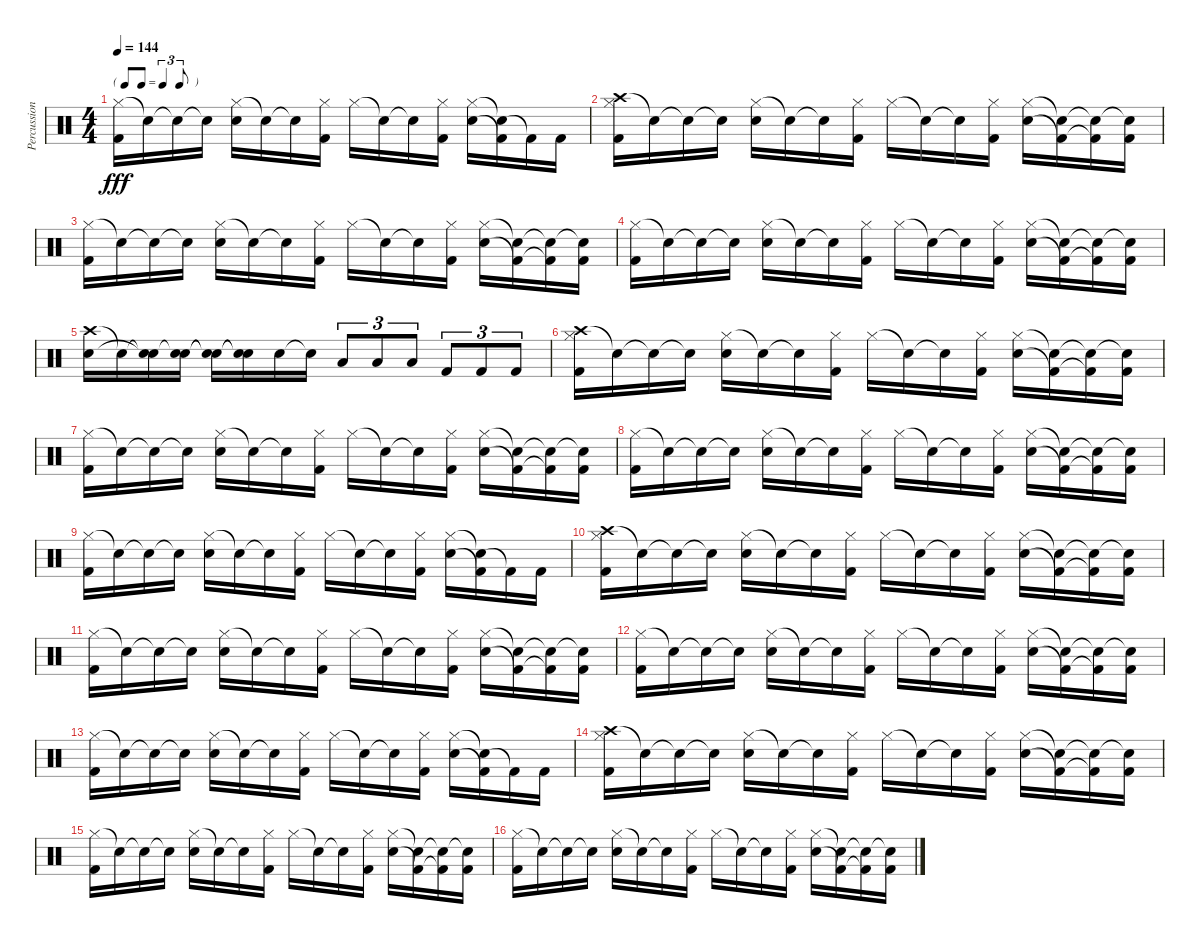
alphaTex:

\track ("Percussion" "Percussion") {instrument percussion}
\staff {score}
\articulation defaults
\ts (4 4)
\tf triplet8th
\tempo 144
\clef neutral
\ks c
("Hi-Hat (closed)" "Kick (hit) 2").16{dy fff} "Snare (hit)"{t}.16 "Snare (hit)"{t}.16 "Snare (hit)"{t}.16 ("Hi-Hat (closed)" "Electric Snare (hit)").16 "Snare (hit)"{t}.16 "Snare (hit)"{t}.16 ("Hi-Hat (closed)" "Kick (hit) 2").16 "Hi-Hat (closed)".16 "Snare (hit)"{t}.16 "Snare (hit)"{t}.16 ("Hi-Hat (closed)" "Kick (hit) 2").16 ("Hi-Hat (closed)" "Electric Snare (hit)").16 ("Snare (hit)"{t} "Kick (hit) 2"{t}).16 "Kick (hit) 2"{t}.16 "Kick (hit) 2".16 |
("Crash high (hit)" "Hi-Hat (closed)" "Kick (hit) 2").16 "Snare (hit)"{t}.16 "Snare (hit)"{t}.16 "Snare (hit)"{t}.16 ("Hi-Hat (closed)" "Electric Snare (hit)").16 "Snare (hit)"{t}.16 "Snare (hit)"{t}.16 ("Hi-Hat (closed)" "Kick (hit) 2").16 "Hi-Hat (closed)".16 "Snare (hit)"{t}.16 "Snare (hit)"{t}.16 ("Hi-Hat (closed)" "Kick (hit) 2").16 ("Hi-Hat (closed)" "Electric Snare (hit)").16 ("Snare (hit)"{t} "Kick (hit) 2"{t}).16 ("Snare (hit)"{t} "Kick (hit) 2"{t}).16 ("Snare (hit)"{t} "Kick (hit) 2").16 |
("Hi-Hat (closed)" "Kick (hit) 2").16 "Snare (hit)"{t}.16 "Snare (hit)"{t}.16 "Snare (hit)"{t}.16 ("Hi-Hat (closed)" "Electric Snare (hit)").16 "Snare (hit)"{t}.16 "Snare (hit)"{t}.16 ("Hi-Hat (closed)" "Kick (hit) 2").16 "Hi-Hat (closed)".16 "Snare (hit)"{t}.16 "Snare (hit)"{t}.16 ("Hi-Hat (closed)" "Kick (hit) 2").16 ("Hi-Hat (closed)" "Electric Snare (hit)").16 ("Snare (hit)"{t} "Kick (hit) 2"{t}).16 ("Snare (hit)"{t} "Kick (hit) 2"{t}).16 ("Snare (hit)"{t} "Kick (hit) 2").16 |
("Hi-Hat (closed)" "Kick (hit) 2").16 "Snare (hit)"{t}.16 "Snare (hit)"{t}.16 "Snare (hit)"{t}.16 ("Hi-Hat (closed)" "Electric Snare (hit)").16 "Snare (hit)"{t}.16 "Snare (hit)"{t}.16 ("Hi-Hat (closed)" "Kick (hit) 2").16 "Hi-Hat (closed)".16 "Snare (hit)"{t}.16 "Snare (hit)"{t}.16 ("Hi-Hat (closed)" "Kick (hit) 2").16 ("Hi-Hat (closed)" "Electric Snare (hit)").16 ("Snare (hit)"{t} "Kick (hit) 2"{t}).16 ("Snare (hit)"{t} "Kick (hit) 2"{t}).16 ("Snare (hit)"{t} "Kick (hit) 2").16 |
("Crash high (hit)" "Electric Snare (hit)").16 "Snare (hit)"{t}.16 ("Snare (hit)"{t} "Electric Snare (hit)"{t}).16 ("Snare (hit)"{t} "Electric Snare (hit)").16 ("Snare (hit)"{t} "Snare (hit)"{t}).16 ("Snare (hit)"{t} "Snare (hit)"{t}).16 "Electric Snare (hit)".16 "Snare (hit)"{t}.16 "Low Floor Tom (hit)".8{tu (3 2)} "Low Floor Tom (hit)".8{tu (3 2)} "Low Floor Tom (hit)".8{tu (3 2)} "Kick (hit) 2".8{tu (3 2)} "Kick (hit) 2".8{tu (3 2)} "Kick (hit) 2".8{tu (3 2)} |
("Crash high (hit)" "Hi-Hat (closed)" "Kick (hit) 2").16 "Snare (hit)"{t}.16 "Snare (hit)"{t}.16 "Snare (hit)"{t}.16 ("Hi-Hat (closed)" "Electric Snare (hit)").16 "Snare (hit)"{t}.16 "Snare (hit)"{t}.16 ("Hi-Hat (closed)" "Kick (hit) 2").16 "Hi-Hat (closed)".16 "Snare (hit)"{t}.16 "Snare (hit)"{t}.16 ("Hi-Hat (closed)" "Kick (hit) 2").16 ("Hi-Hat (closed)" "Electric Snare (hit)").16 ("Snare (hit)"{t} "Kick (hit) 2"{t}).16 ("Snare (hit)"{t} "Kick (hit) 2"{t}).16 ("Snare (hit)"{t} "Kick (hit) 2").16 |
("Hi-Hat (closed)" "Kick (hit) 2").16 "Snare (hit)"{t}.16 "Snare (hit)"{t}.16 "Snare (hit)"{t}.16 ("Hi-Hat (closed)" "Electric Snare (hit)").16 "Snare (hit)"{t}.16 "Snare (hit)"{t}.16 ("Hi-Hat (closed)" "Kick (hit) 2").16 "Hi-Hat (closed)".16 "Snare (hit)"{t}.16 "Snare (hit)"{t}.16 ("Hi-Hat (closed)" "Kick (hit) 2").16 ("Hi-Hat (closed)" "Electric Snare (hit)").16 ("Snare (hit)"{t} "Kick (hit) 2"{t}).16 ("Snare (hit)"{t} "Kick (hit) 2"{t}).16 ("Snare (hit)"{t} "Kick (hit) 2").16 |
("Hi-Hat (closed)" "Kick (hit) 2").16 "Snare (hit)"{t}.16 "Snare (hit)"{t}.16 "Snare (hit)"{t}.16 ("Hi-Hat (closed)" "Electric Snare (hit)").16 "Snare (hit)"{t}.16 "Snare (hit)"{t}.16 ("Hi-Hat (closed)" "Kick (hit) 2").16 "Hi-Hat (closed)".16 "Snare (hit)"{t}.16 "Snare (hit)"{t}.16 ("Hi-Hat (closed)" "Kick (hit) 2").16 ("Hi-Hat (closed)" "Electric Snare (hit)").16 ("Snare (hit)"{t} "Kick (hit) 2"{t}).16 ("Snare (hit)"{t} "Kick (hit) 2"{t}).16 ("Snare (hit)"{t} "Kick (hit) 2").16 |
("Hi-Hat (closed)" "Kick (hit) 2").16 "Snare (hit)"{t}.16 "Snare (hit)"{t}.16 "Snare (hit)"{t}.16 ("Hi-Hat (closed)" "Electric Snare (hit)").16 "Snare (hit)"{t}.16 "Snare (hit)"{t}.16 ("Hi-Hat (closed)" "Kick (hit) 2").16 "Hi-Hat (closed)".16 "Snare (hit)"{t}.16 "Snare (hit)"{t}.16 ("Hi-Hat (closed)" "Kick (hit) 2").16 ("Hi-Hat (closed)" "Electric Snare (hit)").16 ("Snare (hit)"{t} "Kick (hit) 2"{t}).16 "Kick (hit) 2"{t}.16 "Kick (hit) 2".16 |
("Crash high (hit)" "Hi-Hat (closed)" "Kick (hit) 2").16 "Snare (hit)"{t}.16 "Snare (hit)"{t}.16 "Snare (hit)"{t}.16 ("Hi-Hat (closed)" "Electric Snare (hit)").16 "Snare (hit)"{t}.16 "Snare (hit)"{t}.16 ("Hi-Hat (closed)" "Kick (hit) 2").16 "Hi-Hat (closed)".16 "Snare (hit)"{t}.16 "Snare (hit)"{t}.16 ("Hi-Hat (closed)" "Kick (hit) 2").16 ("Hi-Hat (closed)" "Electric Snare (hit)").16 ("Snare (hit)"{t} "Kick (hit) 2"{t}).16 ("Snare (hit)"{t} "Kick (hit) 2"{t}).16 ("Snare (hit)"{t} "Kick (hit) 2").16 |
("Hi-Hat (closed)" "Kick (hit) 2").16 "Snare (hit)"{t}.16 "Snare (hit)"{t}.16 "Snare (hit)"{t}.16 ("Hi-Hat (closed)" "Electric Snare (hit)").16 "Snare (hit)"{t}.16 "Snare (hit)"{t}.16 ("Hi-Hat (closed)" "Kick (hit) 2").16 "Hi-Hat (closed)".16 "Snare (hit)"{t}.16 "Snare (hit)"{t}.16 ("Hi-Hat (closed)" "Kick (hit) 2").16 ("Hi-Hat (closed)" "Electric Snare (hit)").16 ("Snare (hit)"{t} "Kick (hit) 2"{t}).16 ("Snare (hit)"{t} "Kick (hit) 2"{t}).16 ("Snare (hit)"{t} "Kick (hit) 2").16 |
("Hi-Hat (closed)" "Kick (hit) 2").16 "Snare (hit)"{t}.16 "Snare (hit)"{t}.16 "Snare (hit)"{t}.16 ("Hi-Hat (closed)" "Electric Snare (hit)").16 "Snare (hit)"{t}.16 "Snare (hit)"{t}.16 ("Hi-Hat (closed)" "Kick (hit) 2").16 "Hi-Hat (closed)".16 "Snare (hit)"{t}.16 "Snare (hit)"{t}.16 ("Hi-Hat (closed)" "Kick (hit) 2").16 ("Hi-Hat (closed)" "Electric Snare (hit)").16 ("Snare (hit)"{t} "Kick (hit) 2"{t}).16 ("Snare (hit)"{t} "Kick (hit) 2"{t}).16 ("Snare (hit)"{t} "Kick (hit) 2").16 |
("Hi-Hat (closed)" "Kick (hit) 2").16 "Snare (hit)"{t}.16 "Snare (hit)"{t}.16 "Snare (hit)"{t}.16 ("Hi-Hat (closed)" "Electric Snare (hit)").16 "Snare (hit)"{t}.16 "Snare (hit)"{t}.16 ("Hi-Hat (closed)" "Kick (hit) 2").16 "Hi-Hat (closed)".16 "Snare (hit)"{t}.16 "Snare (hit)"{t}.16 ("Hi-Hat (closed)" "Kick (hit) 2").16 ("Hi-Hat (closed)" "Electric Snare (hit)").16 ("Snare (hit)"{t} "Kick (hit) 2"{t}).16 "Kick (hit) 2"{t}.16 "Kick (hit) 2".16 |
("Crash high (hit)" "Hi-Hat (closed)" "Kick (hit) 2").16 "Snare (hit)"{t}.16 "Snare (hit)"{t}.16 "Snare (hit)"{t}.16 ("Hi-Hat (closed)" "Electric Snare (hit)").16 "Snare (hit)"{t}.16 "Snare (hit)"{t}.16 ("Hi-Hat (closed)" "Kick (hit) 2").16 "Hi-Hat (closed)".16 "Snare (hit)"{t}.16 "Snare (hit)"{t}.16 ("Hi-Hat (closed)" "Kick (hit) 2").16 ("Hi-Hat (closed)" "Electric Snare (hit)").16 ("Snare (hit)"{t} "Kick (hit) 2"{t}).16 ("Snare (hit)"{t} "Kick (hit) 2"{t}).16 ("Snare (hit)"{t} "Kick (hit) 2").16 |
("Hi-Hat (closed)" "Kick (hit) 2").16 "Snare (hit)"{t}.16 "Snare (hit)"{t}.16 "Snare (hit)"{t}.16 ("Hi-Hat (closed)" "Electric Snare (hit)").16 "Snare (hit)"{t}.16 "Snare (hit)"{t}.16 ("Hi-Hat (closed)" "Kick (hit) 2").16 "Hi-Hat (closed)".16 "Snare (hit)"{t}.16 "Snare (hit)"{t}.16 ("Hi-Hat (closed)" "Kick (hit) 2").16 ("Hi-Hat (closed)" "Electric Snare (hit)").16 ("Snare (hit)"{t} "Kick (hit) 2"{t}).16 ("Snare (hit)"{t} "Kick (hit) 2"{t}).16 ("Snare (hit)"{t} "Kick (hit) 2").16 |
("Hi-Hat (closed)" "Kick (hit) 2").16 "Snare (hit)"{t}.16 "Snare (hit)"{t}.16 "Snare (hit)"{t}.16 ("Hi-Hat (closed)" "Electric Snare (hit)").16 "Snare (hit)"{t}.16 "Snare (hit)"{t}.16 ("Hi-Hat (closed)" "Kick (hit) 2").16 "Hi-Hat (closed)".16 "Snare (hit)"{t}.16 "Snare (hit)"{t}.16 ("Hi-Hat (closed)" "Kick (hit) 2").16 ("Hi-Hat (closed)" "Electric Snare (hit)").16 ("Snare (hit)"{t} "Kick (hit) 2"{t}).16 ("Snare (hit)"{t} "Kick (hit) 2"{t}).16 ("Snare (hit)"{t} "Kick (hit) 2").16
